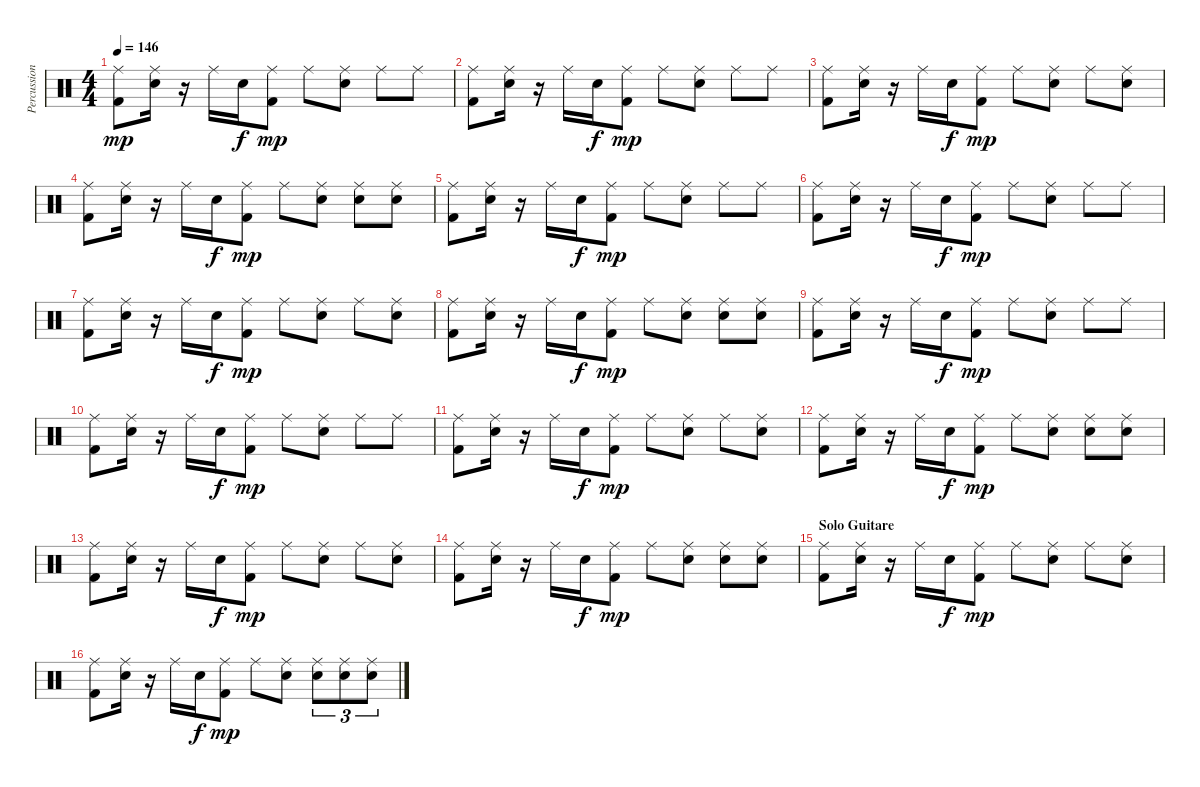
\track ("Percussions" "Percussion") {instrument percussion}
\staff {score}
\articulation defaults
\ts (4 4)
\tempo 146
\clef neutral
\ks c
("Ride (middle)" "Kick (hit) 2").8{dy mp} ("Ride (middle)" "Electric Snare (hit)").16 r.16 "Ride (middle)".16 "Electric Snare (hit)".16{dy f} ("Ride (middle)" "Kick (hit) 2").8{dy mp} "Ride (middle)".8 ("Ride (middle)" "Electric Snare (hit)").8 "Ride (middle)".8 "Ride (middle)".8 |
("Ride (middle)" "Kick (hit) 2").8 ("Ride (middle)" "Electric Snare (hit)").16 r.16 "Ride (middle)".16 "Electric Snare (hit)".16{dy f} ("Ride (middle)" "Kick (hit) 2").8{dy mp} "Ride (middle)".8 ("Ride (middle)" "Electric Snare (hit)").8 "Ride (middle)".8 "Ride (middle)".8 |
("Ride (middle)" "Kick (hit) 2").8 ("Ride (middle)" "Electric Snare (hit)").16 r.16 "Ride (middle)".16 "Electric Snare (hit)".16{dy f} ("Ride (middle)" "Kick (hit) 2").8{dy mp} "Ride (middle)".8 ("Ride (middle)" "Electric Snare (hit)").8 "Ride (middle)".8 ("Ride (middle)" "Electric Snare (hit)").8 |
("Ride (middle)" "Kick (hit) 2").8 ("Ride (middle)" "Electric Snare (hit)").16 r.16 "Ride (middle)".16 "Electric Snare (hit)".16{dy f} ("Ride (middle)" "Kick (hit) 2").8{dy mp} "Ride (middle)".8 ("Ride (middle)" "Electric Snare (hit)").8 ("Ride (middle)" "Electric Snare (hit)").8 ("Ride (middle)" "Electric Snare (hit)").8 |
("Ride (middle)" "Kick (hit) 2").8 ("Ride (middle)" "Electric Snare (hit)").16 r.16 "Ride (middle)".16 "Electric Snare (hit)".16{dy f} ("Ride (middle)" "Kick (hit) 2").8{dy mp} "Ride (middle)".8 ("Ride (middle)" "Electric Snare (hit)").8 "Ride (middle)".8 "Ride (middle)".8 |
("Ride (middle)" "Kick (hit) 2").8 ("Ride (middle)" "Electric Snare (hit)").16 r.16 "Ride (middle)".16 "Electric Snare (hit)".16{dy f} ("Ride (middle)" "Kick (hit) 2").8{dy mp} "Ride (middle)".8 ("Ride (middle)" "Electric Snare (hit)").8 "Ride (middle)".8 "Ride (middle)".8 |
("Ride (middle)" "Kick (hit) 2").8 ("Ride (middle)" "Electric Snare (hit)").16 r.16 "Ride (middle)".16 "Electric Snare (hit)".16{dy f} ("Ride (middle)" "Kick (hit) 2").8{dy mp} "Ride (middle)".8 ("Ride (middle)" "Electric Snare (hit)").8 "Ride (middle)".8 ("Ride (middle)" "Electric Snare (hit)").8 |
("Ride (middle)" "Kick (hit) 2").8 ("Ride (middle)" "Electric Snare (hit)").16 r.16 "Ride (middle)".16 "Electric Snare (hit)".16{dy f} ("Ride (middle)" "Kick (hit) 2").8{dy mp} "Ride (middle)".8 ("Ride (middle)" "Electric Snare (hit)").8 ("Ride (middle)" "Electric Snare (hit)").8 ("Ride (middle)" "Electric Snare (hit)").8 |
("Ride (middle)" "Kick (hit) 2").8 ("Ride (middle)" "Electric Snare (hit)").16 r.16 "Ride (middle)".16 "Electric Snare (hit)".16{dy f} ("Ride (middle)" "Kick (hit) 2").8{dy mp} "Ride (middle)".8 ("Ride (middle)" "Electric Snare (hit)").8 "Ride (middle)".8 "Ride (middle)".8 |
("Ride (middle)" "Kick (hit) 2").8 ("Ride (middle)" "Electric Snare (hit)").16 r.16 "Ride (middle)".16 "Electric Snare (hit)".16{dy f} ("Ride (middle)" "Kick (hit) 2").8{dy mp} "Ride (middle)".8 ("Ride (middle)" "Electric Snare (hit)").8 "Ride (middle)".8 "Ride (middle)".8 |
("Ride (middle)" "Kick (hit) 2").8 ("Ride (middle)" "Electric Snare (hit)").16 r.16 "Ride (middle)".16 "Electric Snare (hit)".16{dy f} ("Ride (middle)" "Kick (hit) 2").8{dy mp} "Ride (middle)".8 ("Ride (middle)" "Electric Snare (hit)").8 "Ride (middle)".8 ("Ride (middle)" "Electric Snare (hit)").8 |
("Ride (middle)" "Kick (hit) 2").8 ("Ride (middle)" "Electric Snare (hit)").16 r.16 "Ride (middle)".16 "Electric Snare (hit)".16{dy f} ("Ride (middle)" "Kick (hit) 2").8{dy mp} "Ride (middle)".8 ("Ride (middle)" "Electric Snare (hit)").8 ("Ride (middle)" "Electric Snare (hit)").8 ("Ride (middle)" "Electric Snare (hit)").8 |
("Ride (middle)" "Kick (hit) 2").8 ("Ride (middle)" "Electric Snare (hit)").16 r.16 "Ride (middle)".16 "Electric Snare (hit)".16{dy f} ("Ride (middle)" "Kick (hit) 2").8{dy mp} "Ride (middle)".8 ("Ride (middle)" "Electric Snare (hit)").8 "Ride (middle)".8 ("Ride (middle)" "Electric Snare (hit)").8 |
("Ride (middle)" "Kick (hit) 2").8 ("Ride (middle)" "Electric Snare (hit)").16 r.16 "Ride (middle)".16 "Electric Snare (hit)".16{dy f} ("Ride (middle)" "Kick (hit) 2").8{dy mp} "Ride (middle)".8 ("Ride (middle)" "Electric Snare (hit)").8 ("Ride (middle)" "Electric Snare (hit)").8 ("Ride (middle)" "Electric Snare (hit)").8 |
\section ("" "Solo Guitare")
("Ride (middle)" "Kick (hit) 2").8 ("Ride (middle)" "Electric Snare (hit)").16 r.16 "Ride (middle)".16 "Electric Snare (hit)".16{dy f} ("Ride (middle)" "Kick (hit) 2").8{dy mp} "Ride (middle)".8 ("Ride (middle)" "Electric Snare (hit)").8 "Ride (middle)".8 ("Ride (middle)" "Electric Snare (hit)").8 |
("Ride (middle)" "Kick (hit) 2").8 ("Ride (middle)" "Electric Snare (hit)").16 r.16 "Ride (middle)".16 "Electric Snare (hit)".16{dy f} ("Ride (middle)" "Kick (hit) 2").8{dy mp} "Ride (middle)".8 ("Ride (middle)" "Electric Snare (hit)").8 ("Ride (middle)" "Electric Snare (hit)").8{tu (3 2)} ("Ride (middle)" "Electric Snare (hit)").8{tu (3 2)} ("Ride (middle)" "Electric Snare (hit)").8{tu (3 2)}
